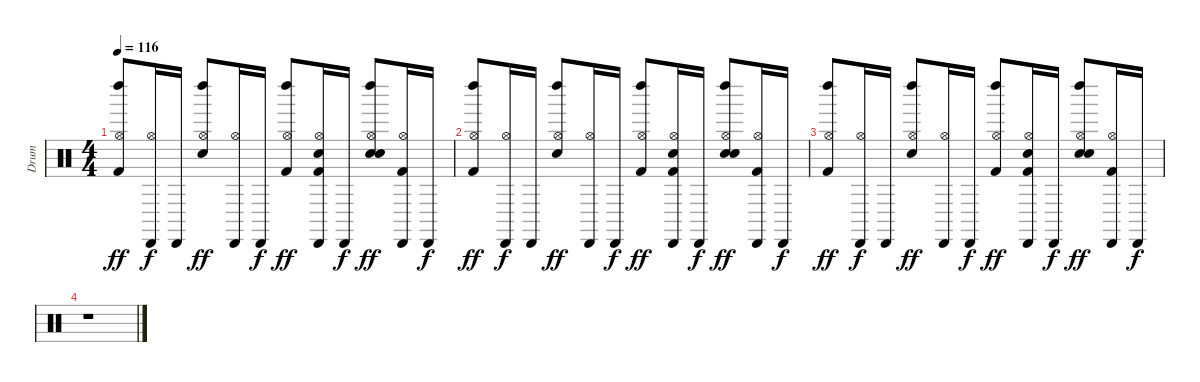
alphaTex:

\track ("Drum" "Drum") {instrument percussion}
\staff {score}
\articulation defaults
\ts (4 4)
\tempo 116
\clef neutral
\ks c
("Kick (hit) 2" "Hi-Hat (open)" "Left Maraca (hit)").8{dy ff} ("Hi-Hat (open)" "Cabasa (hit)").16{dy f} "Cabasa (hit)".16 ("Snare (hit) 2" "Hi-Hat (open)" "Left Maraca (hit)").8{dy ff} ("Hi-Hat (open)" "Cabasa (hit)").16 "Cabasa (hit)".16{dy f} ("Kick (hit) 2" "Hi-Hat (open)" "Left Maraca (hit)").8{dy ff} ("Kick (hit) 2" "Hand Clap (hit)" "Hi-Hat (open)" "Cabasa (hit)").16 "Cabasa (hit)".16{dy f} ("Snare (hit) 2" "Hand Clap (hit)" "Hi-Hat (open)" "Left Maraca (hit)").8{dy ff} ("Kick (hit) 2" "Hi-Hat (open)" "Cabasa (hit)").16 "Cabasa (hit)".16{dy f} |
("Kick (hit) 2" "Hi-Hat (open)" "Left Maraca (hit)").8{dy ff} ("Hi-Hat (open)" "Cabasa (hit)").16{dy f} "Cabasa (hit)".16 ("Snare (hit) 2" "Hi-Hat (open)" "Left Maraca (hit)").8{dy ff} ("Hi-Hat (open)" "Cabasa (hit)").16 "Cabasa (hit)".16{dy f} ("Kick (hit) 2" "Hi-Hat (open)" "Left Maraca (hit)").8{dy ff} ("Kick (hit) 2" "Hand Clap (hit)" "Hi-Hat (open)" "Cabasa (hit)").16 "Cabasa (hit)".16{dy f} ("Snare (hit) 2" "Hand Clap (hit)" "Hi-Hat (open)" "Left Maraca (hit)").8{dy ff} ("Kick (hit) 2" "Hi-Hat (open)" "Cabasa (hit)").16 "Cabasa (hit)".16{dy f} |
("Kick (hit) 2" "Hi-Hat (open)" "Left Maraca (hit)").8{dy ff} ("Hi-Hat (open)" "Cabasa (hit)").16{dy f} "Cabasa (hit)".16 ("Snare (hit) 2" "Hi-Hat (open)" "Left Maraca (hit)").8{dy ff} ("Hi-Hat (open)" "Cabasa (hit)").16 "Cabasa (hit)".16{dy f} ("Kick (hit) 2" "Hi-Hat (open)" "Left Maraca (hit)").8{dy ff} ("Kick (hit) 2" "Hand Clap (hit)" "Hi-Hat (open)" "Cabasa (hit)").16 "Cabasa (hit)".16{dy f} ("Snare (hit) 2" "Hand Clap (hit)" "Hi-Hat (open)" "Left Maraca (hit)").8{dy ff} ("Kick (hit) 2" "Hi-Hat (open)" "Cabasa (hit)").16 "Cabasa (hit)".16{dy f} |
r.1
